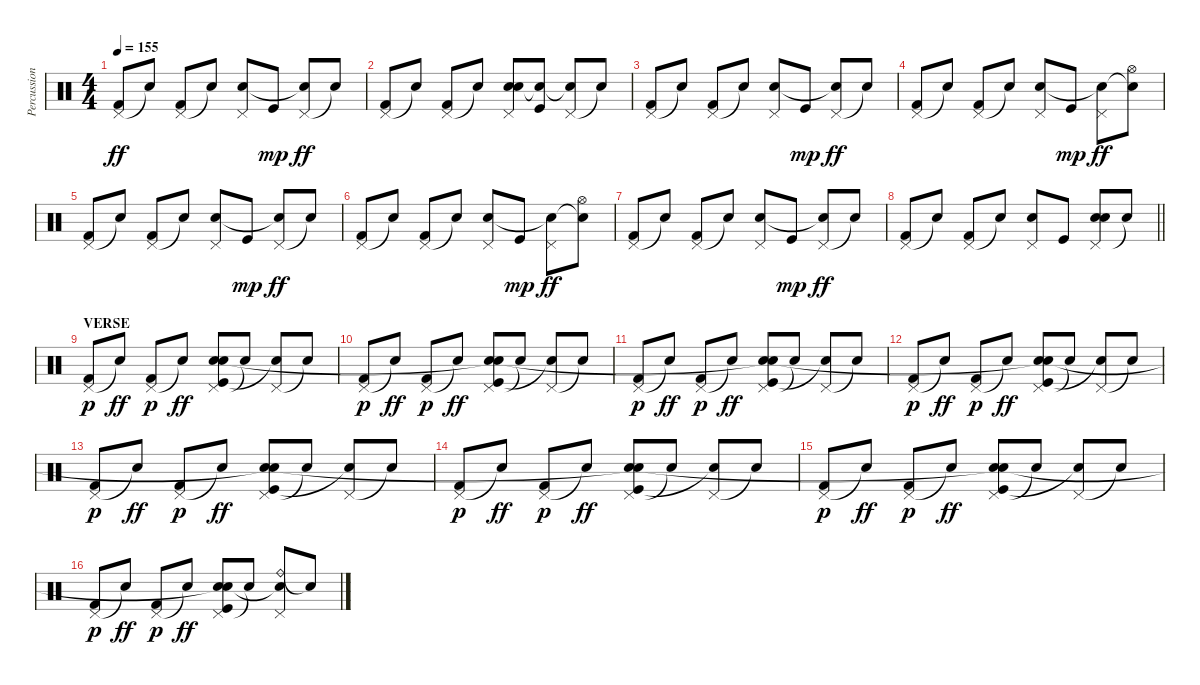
\track ("Percussion" "Percussion") {instrument percussion}
\staff {score}
\articulation defaults
\ts (4 4)
\tempo 155
\clef neutral
\ks c
("Pedal Hi-Hat (hit)" "Kick (hit) 2").8{dy ff} "Snare (hit)"{t}.8 ("Pedal Hi-Hat (hit)" "Kick (hit) 2").8 "Snare (hit)"{t}.8 ("Pedal Hi-Hat (hit)" "Snare (hit) 2").8 "Kick (hit)".8{dy mp} ("Pedal Hi-Hat (hit)" "Snare (hit)"{t}).8{dy ff} "Snare (hit)"{t}.8 |
("Pedal Hi-Hat (hit)" "Kick (hit) 2").8 "Snare (hit)"{t}.8 ("Pedal Hi-Hat (hit)" "Kick (hit) 2").8 "Snare (hit)"{t}.8 ("Pedal Hi-Hat (hit)" "Snare (hit) 2" "Snare (hit)").8 ("Kick (hit)" "Snare (hit)"{t}).8 ("Pedal Hi-Hat (hit)" "Snare (hit)"{t}).8 "Snare (hit)"{t}.8 |
("Pedal Hi-Hat (hit)" "Kick (hit) 2").8 "Snare (hit)"{t}.8 ("Pedal Hi-Hat (hit)" "Kick (hit) 2").8 "Snare (hit)"{t}.8 ("Pedal Hi-Hat (hit)" "Snare (hit) 2").8 "Kick (hit)".8{dy mp} ("Pedal Hi-Hat (hit)" "Snare (hit)"{t}).8{dy ff} "Snare (hit)"{t}.8 |
("Pedal Hi-Hat (hit)" "Kick (hit) 2").8 "Snare (hit)"{t}.8 ("Pedal Hi-Hat (hit)" "Kick (hit) 2").8 "Snare (hit)"{t}.8 ("Pedal Hi-Hat (hit)" "Snare (hit) 2").8 "Kick (hit)".8{dy mp} ("Pedal Hi-Hat (hit)" "Snare (hit)"{t}).8{dy ff} ("Hi-Hat (open)" "Snare (hit)"{t}).8 |
("Pedal Hi-Hat (hit)" "Kick (hit) 2").8 "Snare (hit)"{t}.8 ("Pedal Hi-Hat (hit)" "Kick (hit) 2").8 "Snare (hit)"{t}.8 ("Pedal Hi-Hat (hit)" "Snare (hit) 2").8 "Kick (hit)".8{dy mp} ("Pedal Hi-Hat (hit)" "Snare (hit)"{t}).8{dy ff} "Snare (hit)"{t}.8 |
("Pedal Hi-Hat (hit)" "Kick (hit) 2").8 "Snare (hit)"{t}.8 ("Pedal Hi-Hat (hit)" "Kick (hit) 2").8 "Snare (hit)"{t}.8 ("Pedal Hi-Hat (hit)" "Snare (hit) 2").8 "Kick (hit)".8{dy mp} ("Pedal Hi-Hat (hit)" "Snare (hit)"{t}).8{dy ff} ("Hi-Hat (open)" "Snare (hit)"{t}).8 |
("Pedal Hi-Hat (hit)" "Kick (hit) 2").8 "Snare (hit)"{t}.8 ("Pedal Hi-Hat (hit)" "Kick (hit) 2").8 "Snare (hit)"{t}.8 ("Pedal Hi-Hat (hit)" "Snare (hit) 2").8 "Kick (hit)".8{dy mp} ("Pedal Hi-Hat (hit)" "Snare (hit)"{t}).8{dy ff} "Snare (hit)"{t}.8 |
\barLineRight lightlight
("Pedal Hi-Hat (hit)" "Kick (hit) 2").8 "Snare (hit)"{t}.8 ("Pedal Hi-Hat (hit)" "Kick (hit) 2").8 "Snare (hit)"{t}.8 ("Pedal Hi-Hat (hit)" "Snare (hit) 2").8 "Kick (hit)".8 ("Pedal Hi-Hat (hit)" "Snare (hit) 2" "Snare (hit)").8 "Snare (hit)"{t}.8 |
\section ("" "VERSE")
("Pedal Hi-Hat (hit)" "Kick (hit) 2").8{dy p} "Snare (hit)"{t}.8{dy ff} ("Pedal Hi-Hat (hit)" "Kick (hit) 2").8{dy p} "Snare (hit)"{t}.8{dy ff} ("Pedal Hi-Hat (hit)" "Kick (hit)" "Snare (hit) 2" "Snare (hit)").8 "Snare (hit)"{t}.8 ("Pedal Hi-Hat (hit)" "Snare (hit)"{t}).8 "Snare (hit)"{t}.8 |
("Pedal Hi-Hat (hit)" "Kick (hit) 2").8{dy p} "Snare (hit)"{t}.8{dy ff} ("Pedal Hi-Hat (hit)" "Kick (hit) 2").8{dy p} "Snare (hit)"{t}.8{dy ff} ("Pedal Hi-Hat (hit)" "Kick (hit)" "Snare (hit) 2" "Snare (hit)"{t}).8 "Snare (hit)"{t}.8 ("Pedal Hi-Hat (hit)" "Snare (hit)"{t}).8 "Snare (hit)"{t}.8 |
("Pedal Hi-Hat (hit)" "Kick (hit) 2").8{dy p} "Snare (hit)"{t}.8{dy ff} ("Pedal Hi-Hat (hit)" "Kick (hit) 2").8{dy p} "Snare (hit)"{t}.8{dy ff} ("Pedal Hi-Hat (hit)" "Kick (hit)" "Snare (hit) 2" "Snare (hit)"{t}).8 "Snare (hit)"{t}.8 ("Pedal Hi-Hat (hit)" "Snare (hit)"{t}).8 "Snare (hit)"{t}.8 |
("Pedal Hi-Hat (hit)" "Kick (hit) 2").8{dy p} "Snare (hit)"{t}.8{dy ff} ("Pedal Hi-Hat (hit)" "Kick (hit) 2").8{dy p} "Snare (hit)"{t}.8{dy ff} ("Pedal Hi-Hat (hit)" "Kick (hit)" "Snare (hit) 2" "Snare (hit)"{t}).8 "Snare (hit)"{t}.8 ("Pedal Hi-Hat (hit)" "Snare (hit)"{t}).8 "Snare (hit)"{t}.8 |
("Pedal Hi-Hat (hit)" "Kick (hit) 2").8{dy p} "Snare (hit)"{t}.8{dy ff} ("Pedal Hi-Hat (hit)" "Kick (hit) 2").8{dy p} "Snare (hit)"{t}.8{dy ff} ("Pedal Hi-Hat (hit)" "Kick (hit)" "Snare (hit) 2" "Snare (hit)"{t}).8 "Snare (hit)"{t}.8 ("Pedal Hi-Hat (hit)" "Snare (hit)"{t}).8 "Snare (hit)"{t}.8 |
("Pedal Hi-Hat (hit)" "Kick (hit) 2").8{dy p} "Snare (hit)"{t}.8{dy ff} ("Pedal Hi-Hat (hit)" "Kick (hit) 2").8{dy p} "Snare (hit)"{t}.8{dy ff} ("Pedal Hi-Hat (hit)" "Kick (hit)" "Snare (hit) 2" "Snare (hit)"{t}).8 "Snare (hit)"{t}.8 ("Pedal Hi-Hat (hit)" "Snare (hit)"{t}).8 "Snare (hit)"{t}.8 |
("Pedal Hi-Hat (hit)" "Kick (hit) 2").8{dy p} "Snare (hit)"{t}.8{dy ff} ("Pedal Hi-Hat (hit)" "Kick (hit) 2").8{dy p} "Snare (hit)"{t}.8{dy ff} ("Pedal Hi-Hat (hit)" "Kick (hit)" "Snare (hit) 2" "Snare (hit)"{t}).8 "Snare (hit)"{t}.8 ("Pedal Hi-Hat (hit)" "Snare (hit)"{t}).8 "Snare (hit)"{t}.8 |
("Pedal Hi-Hat (hit)" "Kick (hit) 2").8{dy p} "Snare (hit)"{t}.8{dy ff} ("Pedal Hi-Hat (hit)" "Kick (hit) 2").8{dy p} "Snare (hit)"{t}.8{dy ff} ("Pedal Hi-Hat (hit)" "Kick (hit)" "Snare (hit) 2" "Snare (hit)"{t}).8 "Snare (hit)"{t}.8 ("Ride (bell)" "Pedal Hi-Hat (hit)" "Snare (hit)"{t}).8 "Snare (hit)"{t}.8
